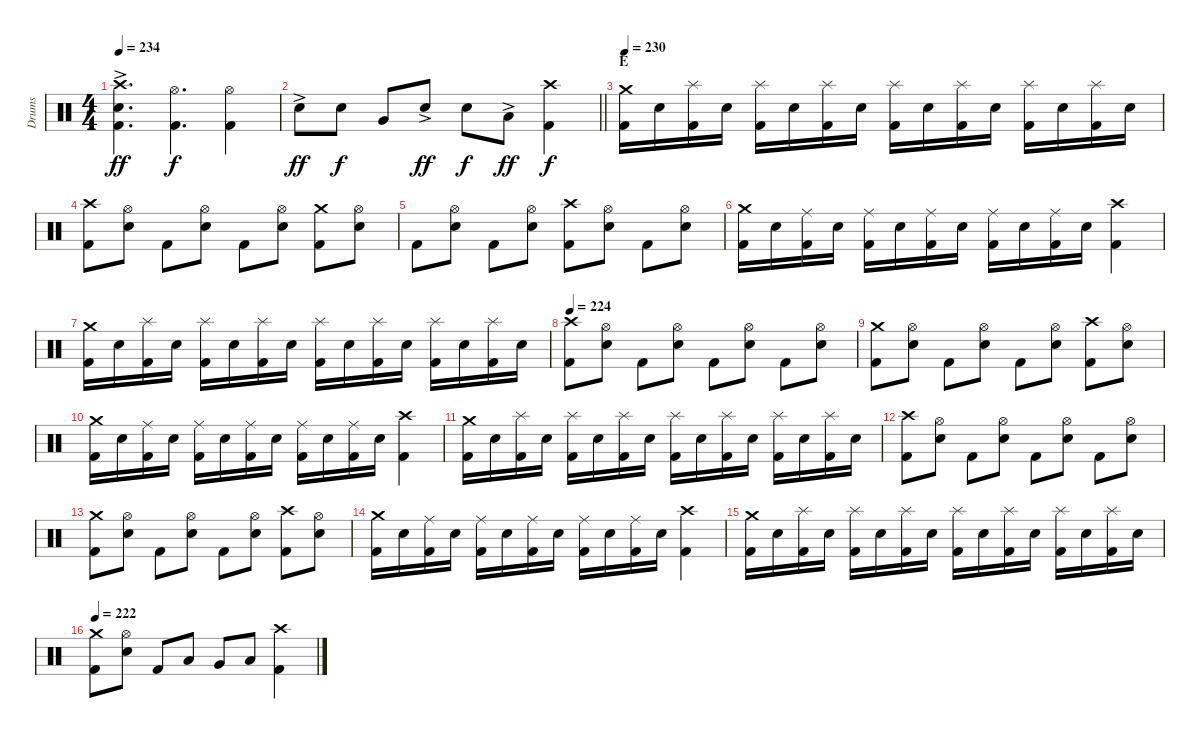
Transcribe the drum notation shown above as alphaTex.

\track ("Drums" "Drums") {instrument percussion}
\staff {score}
\articulation defaults
\ts (4 4)
\tempo 234
\clef neutral
\ks c
("Crash high (hit)"{ac} "Electric Snare (hit)" "Kick (hit) 2").4{d dy ff} ("Hi-Hat (open)" "Kick (hit) 2").4{d dy f} ("Hi-Hat (open)" "Kick (hit) 2").4 |
\barLineRight lightlight "Electric Snare (hit)"{ac}.8{dy ff} "Electric Snare (hit)".8{dy f} "Very Low Tom (hit)".8 "Electric Snare (hit)"{ac}.8{dy ff} "Electric Snare (hit)".8{dy f} "Low Floor Tom (hit)"{ac}.8{dy ff}
("Crash high (hit)" "Kick (hit) 2").4{dy f} |
\section ("" "E")
\tempo 230
("Crash medium (hit)" "Kick (hit) 2").16 "Electric Snare (hit)".16 ("Splash (hit)" "Kick (hit) 2").16 "Electric Snare (hit)".16 ("Splash (hit)" "Kick (hit) 2").16 "Electric Snare (hit)".16 ("Splash (hit)" "Kick (hit) 2").16 "Electric Snare (hit)".16 ("Splash (hit)" "Kick (hit) 2").16 "Electric Snare (hit)".16 ("Splash (hit)" "Kick (hit) 2").16 "Electric Snare (hit)".16 ("Splash (hit)" "Kick (hit) 2").16 "Electric Snare (hit)".16 ("Splash (hit)" "Kick (hit) 2").16 "Electric Snare (hit)".16 |
("Crash high (hit)" "Kick (hit) 2").8 ("Hi-Hat (open)" "Electric Snare (hit)").8 "Kick (hit) 2".8 ("Hi-Hat (open)" "Electric Snare (hit)").8 "Kick (hit) 2".8 ("Hi-Hat (open)" "Electric Snare (hit)").8 ("Crash medium (hit)" "Kick (hit) 2").8 ("Hi-Hat (open)" "Electric Snare (hit)").8 |
"Kick (hit) 2".8 ("Hi-Hat (open)" "Electric Snare (hit)").8 "Kick (hit) 2".8 ("Hi-Hat (open)" "Electric Snare (hit)").8 ("Crash high (hit)" "Kick (hit) 2").8 ("Hi-Hat (open)" "Electric Snare (hit)").8 "Kick (hit) 2".8 ("Hi-Hat (open)" "Electric Snare (hit)").8 |
("Crash medium (hit)" "Kick (hit) 2").16 "Electric Snare (hit)".16 ("Ride (middle)" "Kick (hit) 2").16 "Electric Snare (hit)".16 ("Ride (middle)" "Kick (hit) 2").16 "Electric Snare (hit)".16 ("Ride (middle)" "Kick (hit) 2").16 "Electric Snare (hit)".16 ("Ride (middle)" "Kick (hit) 2").16 "Electric Snare (hit)".16 ("Ride (middle)" "Kick (hit) 2").16 "Electric Snare (hit)".16 ("Crash high (hit)" "Kick (hit) 2").4 |
("Crash medium (hit)" "Kick (hit) 2").16 "Electric Snare (hit)".16 ("Splash (hit)" "Kick (hit) 2").16 "Electric Snare (hit)".16 ("Splash (hit)" "Kick (hit) 2").16 "Electric Snare (hit)".16 ("Splash (hit)" "Kick (hit) 2").16 "Electric Snare (hit)".16 ("Splash (hit)" "Kick (hit) 2").16 "Electric Snare (hit)".16 ("Splash (hit)" "Kick (hit) 2").16 "Electric Snare (hit)".16 ("Splash (hit)" "Kick (hit) 2").16 "Electric Snare (hit)".16 ("Splash (hit)" "Kick (hit) 2").16 "Electric Snare (hit)".16 |
\tempo 224
("Crash high (hit)" "Kick (hit) 2").8 ("Hi-Hat (open)" "Electric Snare (hit)").8 "Kick (hit) 2".8 ("Hi-Hat (open)" "Electric Snare (hit)").8 "Kick (hit) 2".8 ("Hi-Hat (open)" "Electric Snare (hit)").8 "Kick (hit) 2".8 ("Hi-Hat (open)" "Electric Snare (hit)").8 |
("Crash medium (hit)" "Kick (hit) 2").8 ("Hi-Hat (open)" "Electric Snare (hit)").8 "Kick (hit) 2".8 ("Hi-Hat (open)" "Electric Snare (hit)").8 "Kick (hit) 2".8 ("Hi-Hat (open)" "Electric Snare (hit)").8 ("Crash high (hit)" "Kick (hit) 2").8 ("Hi-Hat (open)" "Electric Snare (hit)").8 |
("Crash medium (hit)" "Kick (hit) 2").16 "Electric Snare (hit)".16 ("Ride (middle)" "Kick (hit) 2").16 "Electric Snare (hit)".16 ("Ride (middle)" "Kick (hit) 2").16 "Electric Snare (hit)".16 ("Ride (middle)" "Kick (hit) 2").16 "Electric Snare (hit)".16 ("Ride (middle)" "Kick (hit) 2").16 "Electric Snare (hit)".16 ("Ride (middle)" "Kick (hit) 2").16 "Electric Snare (hit)".16 ("Crash high (hit)" "Kick (hit) 2").4 |
("Crash medium (hit)" "Kick (hit) 2").16 "Electric Snare (hit)".16 ("Splash (hit)" "Kick (hit) 2").16 "Electric Snare (hit)".16 ("Splash (hit)" "Kick (hit) 2").16 "Electric Snare (hit)".16 ("Splash (hit)" "Kick (hit) 2").16 "Electric Snare (hit)".16 ("Splash (hit)" "Kick (hit) 2").16 "Electric Snare (hit)".16 ("Splash (hit)" "Kick (hit) 2").16 "Electric Snare (hit)".16 ("Splash (hit)" "Kick (hit) 2").16 "Electric Snare (hit)".16 ("Splash (hit)" "Kick (hit) 2").16 "Electric Snare (hit)".16 |
("Crash high (hit)" "Kick (hit) 2").8 ("Hi-Hat (open)" "Electric Snare (hit)").8 "Kick (hit) 2".8 ("Hi-Hat (open)" "Electric Snare (hit)").8 "Kick (hit) 2".8 ("Hi-Hat (open)" "Electric Snare (hit)").8 "Kick (hit) 2".8 ("Hi-Hat (open)" "Electric Snare (hit)").8 |
("Crash medium (hit)" "Kick (hit) 2").8 ("Hi-Hat (open)" "Electric Snare (hit)").8 "Kick (hit) 2".8 ("Hi-Hat (open)" "Electric Snare (hit)").8 "Kick (hit) 2".8 ("Hi-Hat (open)" "Electric Snare (hit)").8 ("Crash high (hit)" "Kick (hit) 2").8 ("Hi-Hat (open)" "Electric Snare (hit)").8 |
("Crash medium (hit)" "Kick (hit) 2").16 "Electric Snare (hit)".16 ("Ride (middle)" "Kick (hit) 2").16 "Electric Snare (hit)".16 ("Ride (middle)" "Kick (hit) 2").16 "Electric Snare (hit)".16 ("Ride (middle)" "Kick (hit) 2").16 "Electric Snare (hit)".16 ("Ride (middle)" "Kick (hit) 2").16 "Electric Snare (hit)".16 ("Ride (middle)" "Kick (hit) 2").16 "Electric Snare (hit)".16 ("Crash high (hit)" "Kick (hit) 2").4 |
("Crash medium (hit)" "Kick (hit) 2").16 "Electric Snare (hit)".16 ("Splash (hit)" "Kick (hit) 2").16 "Electric Snare (hit)".16 ("Splash (hit)" "Kick (hit) 2").16 "Electric Snare (hit)".16 ("Splash (hit)" "Kick (hit) 2").16 "Electric Snare (hit)".16 ("Splash (hit)" "Kick (hit) 2").16 "Electric Snare (hit)".16 ("Splash (hit)" "Kick (hit) 2").16 "Electric Snare (hit)".16 ("Splash (hit)" "Kick (hit) 2").16 "Electric Snare (hit)".16 ("Splash (hit)" "Kick (hit) 2").16 "Electric Snare (hit)".16 |
\tempo 222
("Crash medium (hit)" "Kick (hit) 2").8 ("Hi-Hat (open)" "Electric Snare (hit)").8 "Kick (hit) 2".8 "Low Tom (hit)".8 "Very Low Tom (hit)".8 "Low Floor Tom (hit)".8 ("Crash high (hit)" "Kick (hit) 2").4
